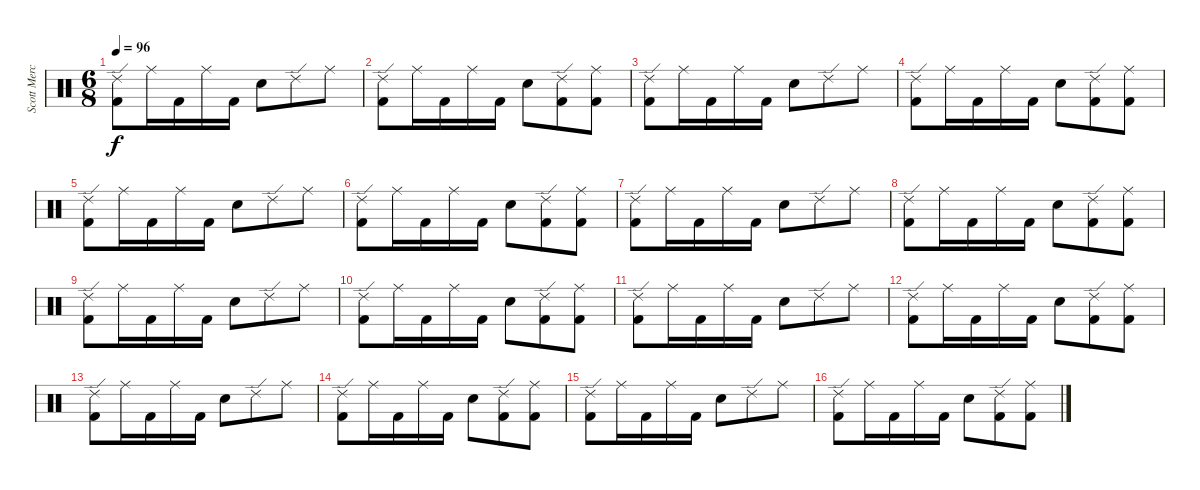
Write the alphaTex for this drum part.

\track ("Scott Mercado Drums" "Scott Merc") {instrument percussion}
\staff {score}
\articulation defaults
\ts (6 8)
\tempo 96
\clef neutral
\ks c
("Ride (edge) 2" "Kick (hit) 2").8{dy f} "Ride (middle)".16 "Kick (hit) 2".16 "Ride (middle)".16 "Kick (hit) 2".16 "Electric Snare (hit)".8 "Ride (edge) 2".8 "Ride (middle)".8 |
("Ride (edge) 2" "Kick (hit) 2").8 "Ride (middle)".16 "Kick (hit) 2".16 "Ride (middle)".16 "Kick (hit) 2".16 "Electric Snare (hit)".8 ("Ride (edge) 2" "Kick (hit) 2").8 ("Ride (middle)" "Kick (hit) 2").8 |
("Ride (edge) 2" "Kick (hit) 2").8 "Ride (middle)".16 "Kick (hit) 2".16 "Ride (middle)".16 "Kick (hit) 2".16 "Electric Snare (hit)".8 "Ride (edge) 2".8 "Ride (middle)".8 |
("Ride (edge) 2" "Kick (hit) 2").8 "Ride (middle)".16 "Kick (hit) 2".16 "Ride (middle)".16 "Kick (hit) 2".16 "Electric Snare (hit)".8 ("Ride (edge) 2" "Kick (hit) 2").8 ("Ride (middle)" "Kick (hit) 2").8 |
("Ride (edge) 2" "Kick (hit) 2").8 "Ride (middle)".16 "Kick (hit) 2".16 "Ride (middle)".16 "Kick (hit) 2".16 "Electric Snare (hit)".8 "Ride (edge) 2".8 "Ride (middle)".8 |
("Ride (edge) 2" "Kick (hit) 2").8 "Ride (middle)".16 "Kick (hit) 2".16 "Ride (middle)".16 "Kick (hit) 2".16 "Electric Snare (hit)".8 ("Ride (edge) 2" "Kick (hit) 2").8 ("Ride (middle)" "Kick (hit) 2").8 |
("Ride (edge) 2" "Kick (hit) 2").8 "Ride (middle)".16 "Kick (hit) 2".16 "Ride (middle)".16 "Kick (hit) 2".16 "Electric Snare (hit)".8 "Ride (edge) 2".8 "Ride (middle)".8 |
("Ride (edge) 2" "Kick (hit) 2").8 "Ride (middle)".16 "Kick (hit) 2".16 "Ride (middle)".16 "Kick (hit) 2".16 "Electric Snare (hit)".8 ("Ride (edge) 2" "Kick (hit) 2").8 ("Ride (middle)" "Kick (hit) 2").8 |
("Ride (edge) 2" "Kick (hit) 2").8 "Ride (middle)".16 "Kick (hit) 2".16 "Ride (middle)".16 "Kick (hit) 2".16 "Electric Snare (hit)".8 "Ride (edge) 2".8 "Ride (middle)".8 |
("Ride (edge) 2" "Kick (hit) 2").8 "Ride (middle)".16 "Kick (hit) 2".16 "Ride (middle)".16 "Kick (hit) 2".16 "Electric Snare (hit)".8 ("Ride (edge) 2" "Kick (hit) 2").8 ("Ride (middle)" "Kick (hit) 2").8 |
("Ride (edge) 2" "Kick (hit) 2").8 "Ride (middle)".16 "Kick (hit) 2".16 "Ride (middle)".16 "Kick (hit) 2".16 "Electric Snare (hit)".8 "Ride (edge) 2".8 "Ride (middle)".8 |
("Ride (edge) 2" "Kick (hit) 2").8 "Ride (middle)".16 "Kick (hit) 2".16 "Ride (middle)".16 "Kick (hit) 2".16 "Electric Snare (hit)".8 ("Ride (edge) 2" "Kick (hit) 2").8 ("Ride (middle)" "Kick (hit) 2").8 |
("Ride (edge) 2" "Kick (hit) 2").8 "Ride (middle)".16 "Kick (hit) 2".16 "Ride (middle)".16 "Kick (hit) 2".16 "Electric Snare (hit)".8 "Ride (edge) 2".8 "Ride (middle)".8 |
("Ride (edge) 2" "Kick (hit) 2").8 "Ride (middle)".16 "Kick (hit) 2".16 "Ride (middle)".16 "Kick (hit) 2".16 "Electric Snare (hit)".8 ("Ride (edge) 2" "Kick (hit) 2").8 ("Ride (middle)" "Kick (hit) 2").8 |
("Ride (edge) 2" "Kick (hit) 2").8 "Ride (middle)".16 "Kick (hit) 2".16 "Ride (middle)".16 "Kick (hit) 2".16 "Electric Snare (hit)".8 "Ride (edge) 2".8 "Ride (middle)".8 |
("Ride (edge) 2" "Kick (hit) 2").8 "Ride (middle)".16 "Kick (hit) 2".16 "Ride (middle)".16 "Kick (hit) 2".16 "Electric Snare (hit)".8 ("Ride (edge) 2" "Kick (hit) 2").8 ("Ride (middle)" "Kick (hit) 2").8
